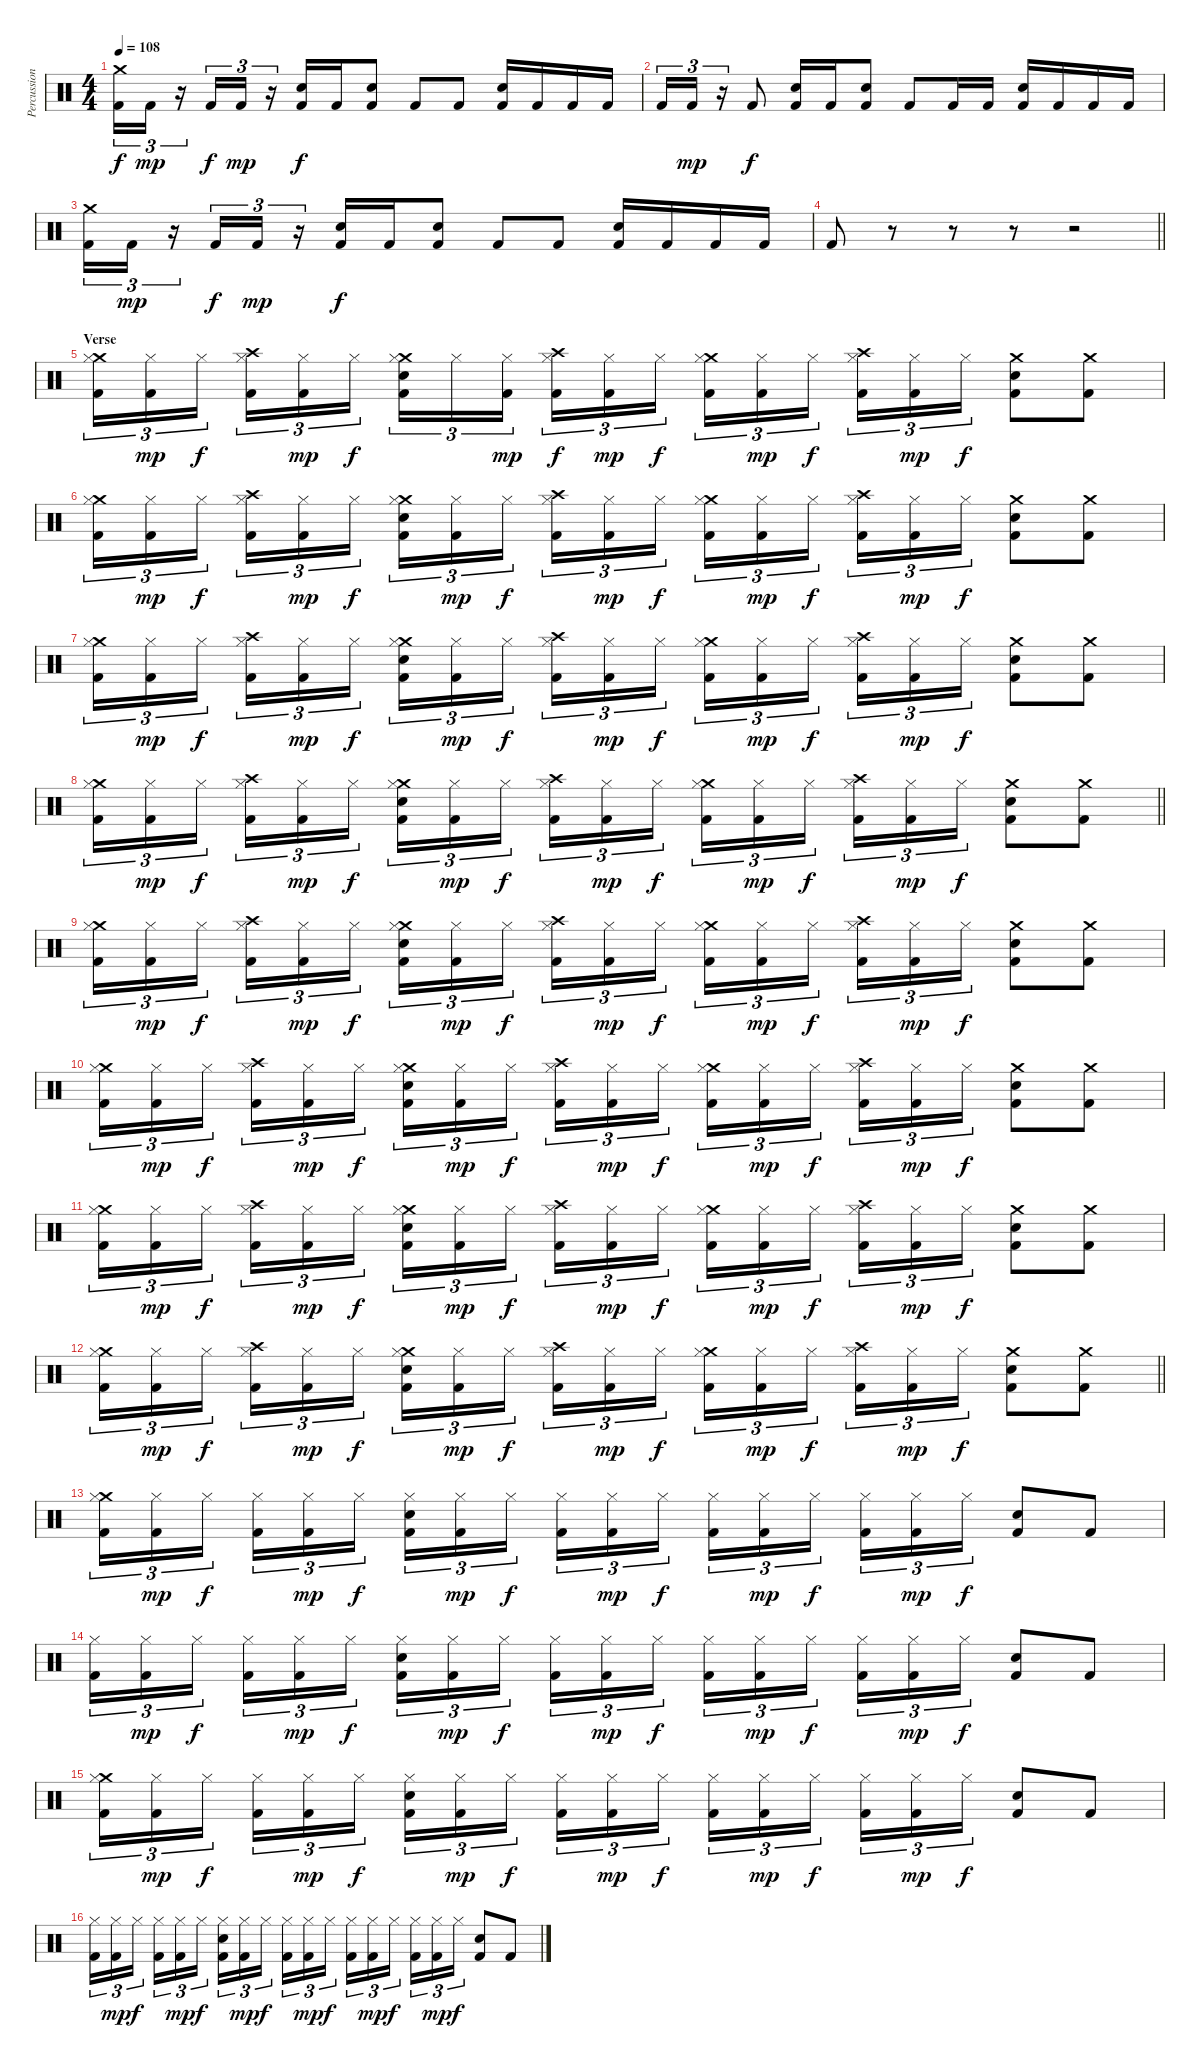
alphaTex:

\track ("Percussion" "Percussion") {instrument percussion}
\staff {score}
\articulation defaults
\ts (4 4)
\tempo 108
\clef neutral
\ks c
("Crash medium (hit)" "Kick (hit) 2").16{tu (3 2) dy f} "Kick (hit) 2".16{tu (3 2) dy mp} r.16{tu (3 2)} "Kick (hit) 2".16{tu (3 2) dy f} "Kick (hit) 2".16{tu (3 2) dy mp} r.16{tu (3 2)} ("Electric Snare (hit)" "Kick (hit) 2").16{dy f} "Kick (hit) 2".16 ("Electric Snare (hit)" "Kick (hit) 2").8 "Kick (hit) 2".8 "Kick (hit) 2".8 ("Electric Snare (hit)" "Kick (hit) 2").16 "Kick (hit) 2".16 "Kick (hit) 2".16 "Kick (hit) 2".16 |
"Kick (hit) 2".16{tu (3 2)} "Kick (hit) 2".16{tu (3 2) dy mp} r.16{tu (3 2)} "Kick (hit) 2".8{dy f} ("Electric Snare (hit)" "Kick (hit) 2").16 "Kick (hit) 2".16 ("Electric Snare (hit)" "Kick (hit) 2").8 "Kick (hit) 2".8 "Kick (hit) 2".16 "Kick (hit) 2".16 ("Electric Snare (hit)" "Kick (hit) 2").16 "Kick (hit) 2".16 "Kick (hit) 2".16 "Kick (hit) 2".16 |
("Crash medium (hit)" "Kick (hit) 2").16{tu (3 2)} "Kick (hit) 2".16{tu (3 2) dy mp} r.16{tu (3 2)} "Kick (hit) 2".16{tu (3 2) dy f} "Kick (hit) 2".16{tu (3 2) dy mp} r.16{tu (3 2)} ("Electric Snare (hit)" "Kick (hit) 2").16{dy f} "Kick (hit) 2".16 ("Electric Snare (hit)" "Kick (hit) 2").8 "Kick (hit) 2".8 "Kick (hit) 2".8 ("Electric Snare (hit)" "Kick (hit) 2").16 "Kick (hit) 2".16 "Kick (hit) 2".16 "Kick (hit) 2".16 |
\barLineRight lightlight "Kick (hit) 2".8
r.8 r.8 r.8 r.2 |
\section ("" "Verse")
("Crash medium (hit)" "Hi-Hat (closed)" "Kick (hit) 2").16{tu (3 2)} ("Hi-Hat (closed)" "Kick (hit) 2").16{tu (3 2) dy mp} "Hi-Hat (closed)".16{tu (3 2) dy f beam splitsecondary} ("Crash high (hit)" "Hi-Hat (closed)" "Kick (hit) 2").16{tu (3 2)} ("Hi-Hat (closed)" "Kick (hit) 2").16{tu (3 2) dy mp} "Hi-Hat (closed)".16{tu (3 2) dy f} ("Crash medium (hit)" "Hi-Hat (closed)" "Electric Snare (hit)" "Kick (hit) 2").16{tu (3 2)} "Hi-Hat (closed)".16{tu (3 2)} ("Hi-Hat (closed)" "Kick (hit) 2").16{tu (3 2) dy mp beam splitsecondary} ("Crash high (hit)" "Hi-Hat (closed)" "Kick (hit) 2").16{tu (3 2) dy f} ("Hi-Hat (closed)" "Kick (hit) 2").16{tu (3 2) dy mp} "Hi-Hat (closed)".16{tu (3 2) dy f} ("Crash medium (hit)" "Hi-Hat (closed)" "Kick (hit) 2").16{tu (3 2)} ("Hi-Hat (closed)" "Kick (hit) 2").16{tu (3 2) dy mp} "Hi-Hat (closed)".16{tu (3 2) dy f beam splitsecondary} ("Crash high (hit)" "Hi-Hat (closed)" "Kick (hit) 2").16{tu (3 2)} ("Hi-Hat (closed)" "Kick (hit) 2").16{tu (3 2) dy mp} "Hi-Hat (closed)".16{tu (3 2) dy f} ("Crash medium (hit)" "Electric Snare (hit)" "Kick (hit) 2").8 ("Crash medium (hit)" "Kick (hit) 2").8 |
("Crash medium (hit)" "Hi-Hat (closed)" "Kick (hit) 2").16{tu (3 2)} ("Hi-Hat (closed)" "Kick (hit) 2").16{tu (3 2) dy mp} "Hi-Hat (closed)".16{tu (3 2) dy f beam splitsecondary} ("Crash high (hit)" "Hi-Hat (closed)" "Kick (hit) 2").16{tu (3 2)} ("Hi-Hat (closed)" "Kick (hit) 2").16{tu (3 2) dy mp} "Hi-Hat (closed)".16{tu (3 2) dy f} ("Crash medium (hit)" "Hi-Hat (closed)" "Electric Snare (hit)" "Kick (hit) 2").16{tu (3 2)} ("Hi-Hat (closed)" "Kick (hit) 2").16{tu (3 2) dy mp} "Hi-Hat (closed)".16{tu (3 2) dy f beam splitsecondary} ("Crash high (hit)" "Hi-Hat (closed)" "Kick (hit) 2").16{tu (3 2)} ("Hi-Hat (closed)" "Kick (hit) 2").16{tu (3 2) dy mp} "Hi-Hat (closed)".16{tu (3 2) dy f} ("Crash medium (hit)" "Hi-Hat (closed)" "Kick (hit) 2").16{tu (3 2)} ("Hi-Hat (closed)" "Kick (hit) 2").16{tu (3 2) dy mp} "Hi-Hat (closed)".16{tu (3 2) dy f beam splitsecondary} ("Crash high (hit)" "Hi-Hat (closed)" "Kick (hit) 2").16{tu (3 2)} ("Hi-Hat (closed)" "Kick (hit) 2").16{tu (3 2) dy mp} "Hi-Hat (closed)".16{tu (3 2) dy f} ("Crash medium (hit)" "Electric Snare (hit)" "Kick (hit) 2").8 ("Crash medium (hit)" "Kick (hit) 2").8 |
("Crash medium (hit)" "Hi-Hat (closed)" "Kick (hit) 2").16{tu (3 2)} ("Hi-Hat (closed)" "Kick (hit) 2").16{tu (3 2) dy mp} "Hi-Hat (closed)".16{tu (3 2) dy f beam splitsecondary} ("Crash high (hit)" "Hi-Hat (closed)" "Kick (hit) 2").16{tu (3 2)} ("Hi-Hat (closed)" "Kick (hit) 2").16{tu (3 2) dy mp} "Hi-Hat (closed)".16{tu (3 2) dy f} ("Crash medium (hit)" "Hi-Hat (closed)" "Electric Snare (hit)" "Kick (hit) 2").16{tu (3 2)} ("Hi-Hat (closed)" "Kick (hit) 2").16{tu (3 2) dy mp} "Hi-Hat (closed)".16{tu (3 2) dy f beam splitsecondary} ("Crash high (hit)" "Hi-Hat (closed)" "Kick (hit) 2").16{tu (3 2)} ("Hi-Hat (closed)" "Kick (hit) 2").16{tu (3 2) dy mp} "Hi-Hat (closed)".16{tu (3 2) dy f} ("Crash medium (hit)" "Hi-Hat (closed)" "Kick (hit) 2").16{tu (3 2)} ("Hi-Hat (closed)" "Kick (hit) 2").16{tu (3 2) dy mp} "Hi-Hat (closed)".16{tu (3 2) dy f beam splitsecondary} ("Crash high (hit)" "Hi-Hat (closed)" "Kick (hit) 2").16{tu (3 2)} ("Hi-Hat (closed)" "Kick (hit) 2").16{tu (3 2) dy mp} "Hi-Hat (closed)".16{tu (3 2) dy f} ("Crash medium (hit)" "Electric Snare (hit)" "Kick (hit) 2").8 ("Crash medium (hit)" "Kick (hit) 2").8 |
\barLineRight lightlight
("Crash medium (hit)" "Hi-Hat (closed)" "Kick (hit) 2").16{tu (3 2)} ("Hi-Hat (closed)" "Kick (hit) 2").16{tu (3 2) dy mp} "Hi-Hat (closed)".16{tu (3 2) dy f beam splitsecondary} ("Crash high (hit)" "Hi-Hat (closed)" "Kick (hit) 2").16{tu (3 2)} ("Hi-Hat (closed)" "Kick (hit) 2").16{tu (3 2) dy mp} "Hi-Hat (closed)".16{tu (3 2) dy f} ("Crash medium (hit)" "Hi-Hat (closed)" "Electric Snare (hit)" "Kick (hit) 2").16{tu (3 2)} ("Hi-Hat (closed)" "Kick (hit) 2").16{tu (3 2) dy mp} "Hi-Hat (closed)".16{tu (3 2) dy f beam splitsecondary} ("Crash high (hit)" "Hi-Hat (closed)" "Kick (hit) 2").16{tu (3 2)} ("Hi-Hat (closed)" "Kick (hit) 2").16{tu (3 2) dy mp} "Hi-Hat (closed)".16{tu (3 2) dy f} ("Crash medium (hit)" "Hi-Hat (closed)" "Kick (hit) 2").16{tu (3 2)} ("Hi-Hat (closed)" "Kick (hit) 2").16{tu (3 2) dy mp} "Hi-Hat (closed)".16{tu (3 2) dy f beam splitsecondary} ("Crash high (hit)" "Hi-Hat (closed)" "Kick (hit) 2").16{tu (3 2)} ("Hi-Hat (closed)" "Kick (hit) 2").16{tu (3 2) dy mp} "Hi-Hat (closed)".16{tu (3 2) dy f} ("Crash medium (hit)" "Electric Snare (hit)" "Kick (hit) 2").8 ("Crash medium (hit)" "Kick (hit) 2").8 |
("Crash medium (hit)" "Hi-Hat (closed)" "Kick (hit) 2").16{tu (3 2)} ("Hi-Hat (closed)" "Kick (hit) 2").16{tu (3 2) dy mp} "Hi-Hat (closed)".16{tu (3 2) dy f beam splitsecondary} ("Crash high (hit)" "Hi-Hat (closed)" "Kick (hit) 2").16{tu (3 2)} ("Hi-Hat (closed)" "Kick (hit) 2").16{tu (3 2) dy mp} "Hi-Hat (closed)".16{tu (3 2) dy f} ("Crash medium (hit)" "Hi-Hat (closed)" "Electric Snare (hit)" "Kick (hit) 2").16{tu (3 2)} ("Hi-Hat (closed)" "Kick (hit) 2").16{tu (3 2) dy mp} "Hi-Hat (closed)".16{tu (3 2) dy f beam splitsecondary} ("Crash high (hit)" "Hi-Hat (closed)" "Kick (hit) 2").16{tu (3 2)} ("Hi-Hat (closed)" "Kick (hit) 2").16{tu (3 2) dy mp} "Hi-Hat (closed)".16{tu (3 2) dy f} ("Crash medium (hit)" "Hi-Hat (closed)" "Kick (hit) 2").16{tu (3 2)} ("Hi-Hat (closed)" "Kick (hit) 2").16{tu (3 2) dy mp} "Hi-Hat (closed)".16{tu (3 2) dy f beam splitsecondary} ("Crash high (hit)" "Hi-Hat (closed)" "Kick (hit) 2").16{tu (3 2)} ("Hi-Hat (closed)" "Kick (hit) 2").16{tu (3 2) dy mp} "Hi-Hat (closed)".16{tu (3 2) dy f} ("Crash medium (hit)" "Electric Snare (hit)" "Kick (hit) 2").8 ("Crash medium (hit)" "Kick (hit) 2").8 |
("Crash medium (hit)" "Hi-Hat (closed)" "Kick (hit) 2").16{tu (3 2)} ("Hi-Hat (closed)" "Kick (hit) 2").16{tu (3 2) dy mp} "Hi-Hat (closed)".16{tu (3 2) dy f beam splitsecondary} ("Crash high (hit)" "Hi-Hat (closed)" "Kick (hit) 2").16{tu (3 2)} ("Hi-Hat (closed)" "Kick (hit) 2").16{tu (3 2) dy mp} "Hi-Hat (closed)".16{tu (3 2) dy f} ("Crash medium (hit)" "Hi-Hat (closed)" "Electric Snare (hit)" "Kick (hit) 2").16{tu (3 2)} ("Hi-Hat (closed)" "Kick (hit) 2").16{tu (3 2) dy mp} "Hi-Hat (closed)".16{tu (3 2) dy f beam splitsecondary} ("Crash high (hit)" "Hi-Hat (closed)" "Kick (hit) 2").16{tu (3 2)} ("Hi-Hat (closed)" "Kick (hit) 2").16{tu (3 2) dy mp} "Hi-Hat (closed)".16{tu (3 2) dy f} ("Crash medium (hit)" "Hi-Hat (closed)" "Kick (hit) 2").16{tu (3 2)} ("Hi-Hat (closed)" "Kick (hit) 2").16{tu (3 2) dy mp} "Hi-Hat (closed)".16{tu (3 2) dy f beam splitsecondary} ("Crash high (hit)" "Hi-Hat (closed)" "Kick (hit) 2").16{tu (3 2)} ("Hi-Hat (closed)" "Kick (hit) 2").16{tu (3 2) dy mp} "Hi-Hat (closed)".16{tu (3 2) dy f} ("Crash medium (hit)" "Electric Snare (hit)" "Kick (hit) 2").8 ("Crash medium (hit)" "Kick (hit) 2").8 |
("Crash medium (hit)" "Hi-Hat (closed)" "Kick (hit) 2").16{tu (3 2)} ("Hi-Hat (closed)" "Kick (hit) 2").16{tu (3 2) dy mp} "Hi-Hat (closed)".16{tu (3 2) dy f beam splitsecondary} ("Crash high (hit)" "Hi-Hat (closed)" "Kick (hit) 2").16{tu (3 2)} ("Hi-Hat (closed)" "Kick (hit) 2").16{tu (3 2) dy mp} "Hi-Hat (closed)".16{tu (3 2) dy f} ("Crash medium (hit)" "Hi-Hat (closed)" "Electric Snare (hit)" "Kick (hit) 2").16{tu (3 2)} ("Hi-Hat (closed)" "Kick (hit) 2").16{tu (3 2) dy mp} "Hi-Hat (closed)".16{tu (3 2) dy f beam splitsecondary} ("Crash high (hit)" "Hi-Hat (closed)" "Kick (hit) 2").16{tu (3 2)} ("Hi-Hat (closed)" "Kick (hit) 2").16{tu (3 2) dy mp} "Hi-Hat (closed)".16{tu (3 2) dy f} ("Crash medium (hit)" "Hi-Hat (closed)" "Kick (hit) 2").16{tu (3 2)} ("Hi-Hat (closed)" "Kick (hit) 2").16{tu (3 2) dy mp} "Hi-Hat (closed)".16{tu (3 2) dy f beam splitsecondary} ("Crash high (hit)" "Hi-Hat (closed)" "Kick (hit) 2").16{tu (3 2)} ("Hi-Hat (closed)" "Kick (hit) 2").16{tu (3 2) dy mp} "Hi-Hat (closed)".16{tu (3 2) dy f} ("Crash medium (hit)" "Electric Snare (hit)" "Kick (hit) 2").8 ("Crash medium (hit)" "Kick (hit) 2").8 |
\barLineRight lightlight
("Crash medium (hit)" "Hi-Hat (closed)" "Kick (hit) 2").16{tu (3 2)} ("Hi-Hat (closed)" "Kick (hit) 2").16{tu (3 2) dy mp} "Hi-Hat (closed)".16{tu (3 2) dy f beam splitsecondary} ("Crash high (hit)" "Hi-Hat (closed)" "Kick (hit) 2").16{tu (3 2)} ("Hi-Hat (closed)" "Kick (hit) 2").16{tu (3 2) dy mp} "Hi-Hat (closed)".16{tu (3 2) dy f} ("Crash medium (hit)" "Hi-Hat (closed)" "Electric Snare (hit)" "Kick (hit) 2").16{tu (3 2)} ("Hi-Hat (closed)" "Kick (hit) 2").16{tu (3 2) dy mp} "Hi-Hat (closed)".16{tu (3 2) dy f beam splitsecondary} ("Crash high (hit)" "Hi-Hat (closed)" "Kick (hit) 2").16{tu (3 2)} ("Hi-Hat (closed)" "Kick (hit) 2").16{tu (3 2) dy mp} "Hi-Hat (closed)".16{tu (3 2) dy f} ("Crash medium (hit)" "Hi-Hat (closed)" "Kick (hit) 2").16{tu (3 2)} ("Hi-Hat (closed)" "Kick (hit) 2").16{tu (3 2) dy mp} "Hi-Hat (closed)".16{tu (3 2) dy f beam splitsecondary} ("Crash high (hit)" "Hi-Hat (closed)" "Kick (hit) 2").16{tu (3 2)} ("Hi-Hat (closed)" "Kick (hit) 2").16{tu (3 2) dy mp} "Hi-Hat (closed)".16{tu (3 2) dy f} ("Crash medium (hit)" "Electric Snare (hit)" "Kick (hit) 2").8 ("Crash medium (hit)" "Kick (hit) 2").8 |
\section ("" "")
("Crash medium (hit)" "Hi-Hat (closed)" "Kick (hit) 2").16{tu (3 2)} ("Hi-Hat (closed)" "Kick (hit) 2").16{tu (3 2) dy mp} "Hi-Hat (closed)".16{tu (3 2) dy f beam splitsecondary} ("Hi-Hat (closed)" "Kick (hit) 2").16{tu (3 2)} ("Hi-Hat (closed)" "Kick (hit) 2").16{tu (3 2) dy mp} "Hi-Hat (closed)".16{tu (3 2) dy f} ("Hi-Hat (closed)" "Electric Snare (hit)" "Kick (hit) 2").16{tu (3 2)} ("Hi-Hat (closed)" "Kick (hit) 2").16{tu (3 2) dy mp} "Hi-Hat (closed)".16{tu (3 2) dy f beam splitsecondary} ("Hi-Hat (closed)" "Kick (hit) 2").16{tu (3 2)} ("Hi-Hat (closed)" "Kick (hit) 2").16{tu (3 2) dy mp} "Hi-Hat (closed)".16{tu (3 2) dy f} ("Hi-Hat (closed)" "Kick (hit) 2").16{tu (3 2)} ("Hi-Hat (closed)" "Kick (hit) 2").16{tu (3 2) dy mp} "Hi-Hat (closed)".16{tu (3 2) dy f beam splitsecondary} ("Hi-Hat (closed)" "Kick (hit) 2").16{tu (3 2)} ("Hi-Hat (closed)" "Kick (hit) 2").16{tu (3 2) dy mp} "Hi-Hat (closed)".16{tu (3 2) dy f} ("Electric Snare (hit)" "Kick (hit) 2").8 "Kick (hit) 2".8 |
("Hi-Hat (closed)" "Kick (hit) 2").16{tu (3 2)} ("Hi-Hat (closed)" "Kick (hit) 2").16{tu (3 2) dy mp} "Hi-Hat (closed)".16{tu (3 2) dy f beam splitsecondary} ("Hi-Hat (closed)" "Kick (hit) 2").16{tu (3 2)} ("Hi-Hat (closed)" "Kick (hit) 2").16{tu (3 2) dy mp} "Hi-Hat (closed)".16{tu (3 2) dy f} ("Hi-Hat (closed)" "Electric Snare (hit)" "Kick (hit) 2").16{tu (3 2)} ("Hi-Hat (closed)" "Kick (hit) 2").16{tu (3 2) dy mp} "Hi-Hat (closed)".16{tu (3 2) dy f beam splitsecondary} ("Hi-Hat (closed)" "Kick (hit) 2").16{tu (3 2)} ("Hi-Hat (closed)" "Kick (hit) 2").16{tu (3 2) dy mp} "Hi-Hat (closed)".16{tu (3 2) dy f} ("Hi-Hat (closed)" "Kick (hit) 2").16{tu (3 2)} ("Hi-Hat (closed)" "Kick (hit) 2").16{tu (3 2) dy mp} "Hi-Hat (closed)".16{tu (3 2) dy f beam splitsecondary} ("Hi-Hat (closed)" "Kick (hit) 2").16{tu (3 2)} ("Hi-Hat (closed)" "Kick (hit) 2").16{tu (3 2) dy mp} "Hi-Hat (closed)".16{tu (3 2) dy f} ("Electric Snare (hit)" "Kick (hit) 2").8 "Kick (hit) 2".8 |
("Crash medium (hit)" "Hi-Hat (closed)" "Kick (hit) 2").16{tu (3 2)} ("Hi-Hat (closed)" "Kick (hit) 2").16{tu (3 2) dy mp} "Hi-Hat (closed)".16{tu (3 2) dy f beam splitsecondary} ("Hi-Hat (closed)" "Kick (hit) 2").16{tu (3 2)} ("Hi-Hat (closed)" "Kick (hit) 2").16{tu (3 2) dy mp} "Hi-Hat (closed)".16{tu (3 2) dy f} ("Hi-Hat (closed)" "Electric Snare (hit)" "Kick (hit) 2").16{tu (3 2)} ("Hi-Hat (closed)" "Kick (hit) 2").16{tu (3 2) dy mp} "Hi-Hat (closed)".16{tu (3 2) dy f beam splitsecondary} ("Hi-Hat (closed)" "Kick (hit) 2").16{tu (3 2)} ("Hi-Hat (closed)" "Kick (hit) 2").16{tu (3 2) dy mp} "Hi-Hat (closed)".16{tu (3 2) dy f} ("Hi-Hat (closed)" "Kick (hit) 2").16{tu (3 2)} ("Hi-Hat (closed)" "Kick (hit) 2").16{tu (3 2) dy mp} "Hi-Hat (closed)".16{tu (3 2) dy f beam splitsecondary} ("Hi-Hat (closed)" "Kick (hit) 2").16{tu (3 2)} ("Hi-Hat (closed)" "Kick (hit) 2").16{tu (3 2) dy mp} "Hi-Hat (closed)".16{tu (3 2) dy f} ("Electric Snare (hit)" "Kick (hit) 2").8 "Kick (hit) 2".8 |
("Hi-Hat (closed)" "Kick (hit) 2").16{tu (3 2)} ("Hi-Hat (closed)" "Kick (hit) 2").16{tu (3 2) dy mp} "Hi-Hat (closed)".16{tu (3 2) dy f beam splitsecondary} ("Hi-Hat (closed)" "Kick (hit) 2").16{tu (3 2)} ("Hi-Hat (closed)" "Kick (hit) 2").16{tu (3 2) dy mp} "Hi-Hat (closed)".16{tu (3 2) dy f} ("Hi-Hat (closed)" "Electric Snare (hit)" "Kick (hit) 2").16{tu (3 2)} ("Hi-Hat (closed)" "Kick (hit) 2").16{tu (3 2) dy mp} "Hi-Hat (closed)".16{tu (3 2) dy f beam splitsecondary} ("Hi-Hat (closed)" "Kick (hit) 2").16{tu (3 2)} ("Hi-Hat (closed)" "Kick (hit) 2").16{tu (3 2) dy mp} "Hi-Hat (closed)".16{tu (3 2) dy f} ("Hi-Hat (closed)" "Kick (hit) 2").16{tu (3 2)} ("Hi-Hat (closed)" "Kick (hit) 2").16{tu (3 2) dy mp} "Hi-Hat (closed)".16{tu (3 2) dy f beam splitsecondary} ("Hi-Hat (closed)" "Kick (hit) 2").16{tu (3 2)} ("Hi-Hat (closed)" "Kick (hit) 2").16{tu (3 2) dy mp} "Hi-Hat (closed)".16{tu (3 2) dy f} ("Electric Snare (hit)" "Kick (hit) 2").8 "Kick (hit) 2".8
